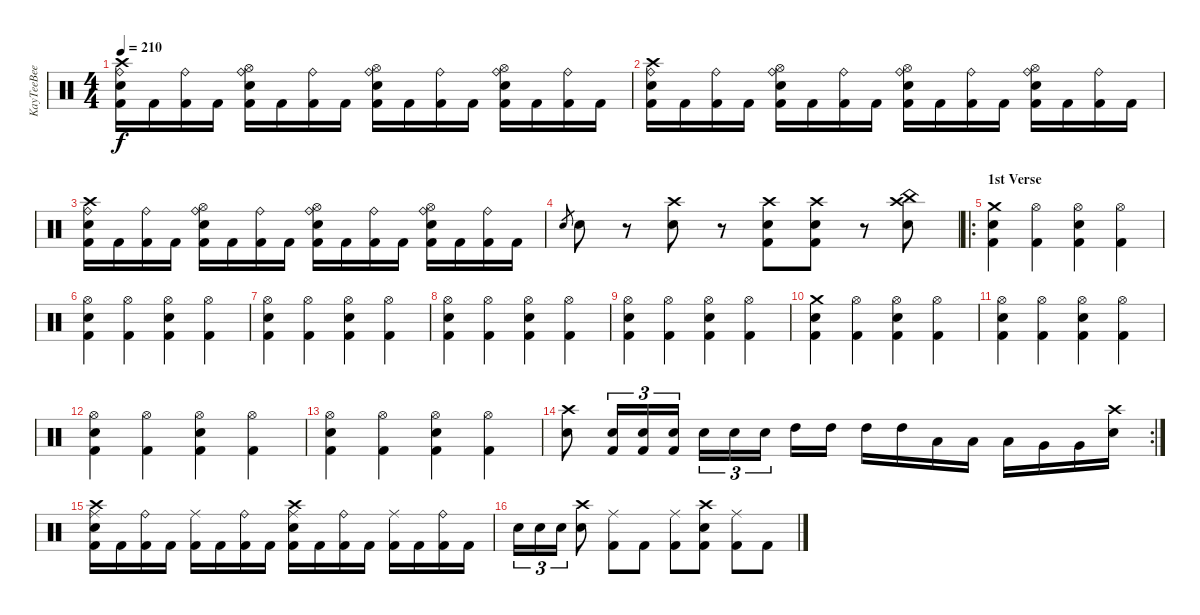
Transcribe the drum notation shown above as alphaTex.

\track ("KayTeeBee" "KayTeeBee") {instrument percussion}
\staff {score}
\articulation defaults
\ts (4 4)
\tempo 210
\clef neutral
\ks c
("Kick (hit) 2" "Electric Snare (hit)" "Ride (bell)" "Crash high (hit)").16{dy f} "Kick (hit) 2".16 ("Kick (hit) 2" "Ride (bell)").16 "Kick (hit) 2".16 ("Kick (hit) 2" "Electric Snare (hit)" "Ride (bell)" "Hi-Hat (open)").16 "Kick (hit) 2".16 ("Kick (hit) 2" "Ride (bell)").16 "Kick (hit) 2".16 ("Kick (hit) 2" "Electric Snare (hit)" "Ride (bell)" "Hi-Hat (open)").16 "Kick (hit) 2".16 ("Kick (hit) 2" "Ride (bell)").16 "Kick (hit) 2".16 ("Kick (hit) 2" "Electric Snare (hit)" "Ride (bell)" "Hi-Hat (open)").16 "Kick (hit) 2".16 ("Kick (hit) 2" "Ride (bell)").16 "Kick (hit) 2".16 |
("Kick (hit) 2" "Electric Snare (hit)" "Ride (bell)" "Crash high (hit)").16 "Kick (hit) 2".16 ("Kick (hit) 2" "Ride (bell)").16 "Kick (hit) 2".16 ("Kick (hit) 2" "Electric Snare (hit)" "Ride (bell)" "Hi-Hat (open)").16 "Kick (hit) 2".16 ("Kick (hit) 2" "Ride (bell)").16 "Kick (hit) 2".16 ("Kick (hit) 2" "Electric Snare (hit)" "Ride (bell)" "Hi-Hat (open)").16 "Kick (hit) 2".16 ("Kick (hit) 2" "Ride (bell)").16 "Kick (hit) 2".16 ("Kick (hit) 2" "Electric Snare (hit)" "Ride (bell)" "Hi-Hat (open)").16 "Kick (hit) 2".16 ("Kick (hit) 2" "Ride (bell)").16 "Kick (hit) 2".16 |
("Kick (hit) 2" "Electric Snare (hit)" "Ride (bell)" "Crash high (hit)").16 "Kick (hit) 2".16 ("Kick (hit) 2" "Ride (bell)").16 "Kick (hit) 2".16 ("Kick (hit) 2" "Electric Snare (hit)" "Ride (bell)" "Hi-Hat (open)").16 "Kick (hit) 2".16 ("Kick (hit) 2" "Ride (bell)").16 "Kick (hit) 2".16 ("Kick (hit) 2" "Electric Snare (hit)" "Ride (bell)" "Hi-Hat (open)").16 "Kick (hit) 2".16 ("Kick (hit) 2" "Ride (bell)").16 "Kick (hit) 2".16 ("Kick (hit) 2" "Electric Snare (hit)" "Ride (bell)" "Hi-Hat (open)").16 "Kick (hit) 2".16 ("Kick (hit) 2" "Ride (bell)").16 "Kick (hit) 2".16 |
"Electric Snare (hit)".8{gr} "Electric Snare (hit)".8 r.8 ("Crash high (hit)" "Electric Snare (hit)").8 r.8 ("Electric Snare (hit)" "Kick (hit) 2" "Crash high (hit)").8 ("Electric Snare (hit)" "Kick (hit) 2" "Crash high (hit)").8 r.8 ("Crash high (hit)" "Electric Snare (hit)" "China (hit)").8 |
\ro
\section ("" "1st Verse")
("Crash medium (hit)" "Electric Snare (hit)" "Kick (hit) 2").4 ("Hi-Hat (open)" "Kick (hit) 2").4 ("Hi-Hat (open)" "Electric Snare (hit)" "Kick (hit) 2").4 ("Hi-Hat (open)" "Kick (hit) 2").4 |
("Hi-Hat (open)" "Electric Snare (hit)" "Kick (hit) 2").4 ("Hi-Hat (open)" "Kick (hit) 2").4 ("Hi-Hat (open)" "Electric Snare (hit)" "Kick (hit) 2").4 ("Hi-Hat (open)" "Kick (hit) 2").4 |
("Hi-Hat (open)" "Electric Snare (hit)" "Kick (hit) 2").4 ("Hi-Hat (open)" "Kick (hit) 2").4 ("Hi-Hat (open)" "Electric Snare (hit)" "Kick (hit) 2").4 ("Hi-Hat (open)" "Kick (hit) 2").4 |
("Hi-Hat (open)" "Electric Snare (hit)" "Kick (hit) 2").4 ("Hi-Hat (open)" "Kick (hit) 2").4 ("Hi-Hat (open)" "Electric Snare (hit)" "Kick (hit) 2").4 ("Hi-Hat (open)" "Kick (hit) 2").4 |
("Hi-Hat (open)" "Electric Snare (hit)" "Kick (hit) 2").4 ("Hi-Hat (open)" "Kick (hit) 2").4 ("Hi-Hat (open)" "Electric Snare (hit)" "Kick (hit) 2").4 ("Hi-Hat (open)" "Kick (hit) 2").4 |
("Crash medium (hit)" "Electric Snare (hit)" "Kick (hit) 2").4 ("Hi-Hat (open)" "Kick (hit) 2").4 ("Hi-Hat (open)" "Electric Snare (hit)" "Kick (hit) 2").4 ("Hi-Hat (open)" "Kick (hit) 2").4 |
("Hi-Hat (open)" "Electric Snare (hit)" "Kick (hit) 2").4 ("Hi-Hat (open)" "Kick (hit) 2").4 ("Hi-Hat (open)" "Electric Snare (hit)" "Kick (hit) 2").4 ("Hi-Hat (open)" "Kick (hit) 2").4 |
("Hi-Hat (open)" "Electric Snare (hit)" "Kick (hit) 2").4 ("Hi-Hat (open)" "Kick (hit) 2").4 ("Hi-Hat (open)" "Electric Snare (hit)" "Kick (hit) 2").4 ("Hi-Hat (open)" "Kick (hit) 2").4 |
("Hi-Hat (open)" "Electric Snare (hit)" "Kick (hit) 2").4 ("Hi-Hat (open)" "Kick (hit) 2").4 ("Hi-Hat (open)" "Electric Snare (hit)" "Kick (hit) 2").4 ("Hi-Hat (open)" "Kick (hit) 2").4 |
\rc 2
("Crash high (hit)" "Electric Snare (hit)").8 ("Kick (hit) 2" "Electric Snare (hit)").16{tu (3 2)} ("Kick (hit) 2" "Electric Snare (hit)").16{tu (3 2)} ("Kick (hit) 2" "Electric Snare (hit)").16{tu (3 2)} "Electric Snare (hit)".16{tu (3 2)} "Electric Snare (hit)".16{tu (3 2)} "Electric Snare (hit)".16{tu (3 2)} "High Tom (hit)".16 "High Tom (hit)".16 "High Tom (hit)".16 "High Tom (hit)".16 "Low Tom (hit)".16 "Low Tom (hit)".16 "Low Tom (hit)".16 "Very Low Tom (hit)".16 "Very Low Tom (hit)".16 ("Electric Snare (hit)" "Crash high (hit)").16 |
("Kick (hit) 2" "Electric Snare (hit)" "Crash high (hit)" "Ride (middle)").16 "Kick (hit) 2".16 ("Kick (hit) 2" "Ride (bell)").16 "Kick (hit) 2".16 ("Kick (hit) 2" "Ride (middle)").16 "Kick (hit) 2".16 ("Kick (hit) 2" "Ride (bell)").16 "Kick (hit) 2".16 ("Kick (hit) 2" "Electric Snare (hit)" "Crash high (hit)" "Ride (middle)").16 "Kick (hit) 2".16 ("Kick (hit) 2" "Ride (bell)").16 "Kick (hit) 2".16 ("Kick (hit) 2" "Ride (middle)").16 "Kick (hit) 2".16 ("Kick (hit) 2" "Ride (bell)").16 "Kick (hit) 2".16 |
"Electric Snare (hit)".16{tu (3 2)} "Electric Snare (hit)".16{tu (3 2)} "Electric Snare (hit)".16{tu (3 2)} ("Crash high (hit)" "Electric Snare (hit)").8 ("Kick (hit) 2" "Ride (middle)").8 "Kick (hit) 2".8 ("Kick (hit) 2" "Ride (middle)").8 ("Kick (hit) 2" "Crash high (hit)" "Electric Snare (hit)").8 ("Kick (hit) 2" "Ride (middle)").8 "Kick (hit) 2".8
